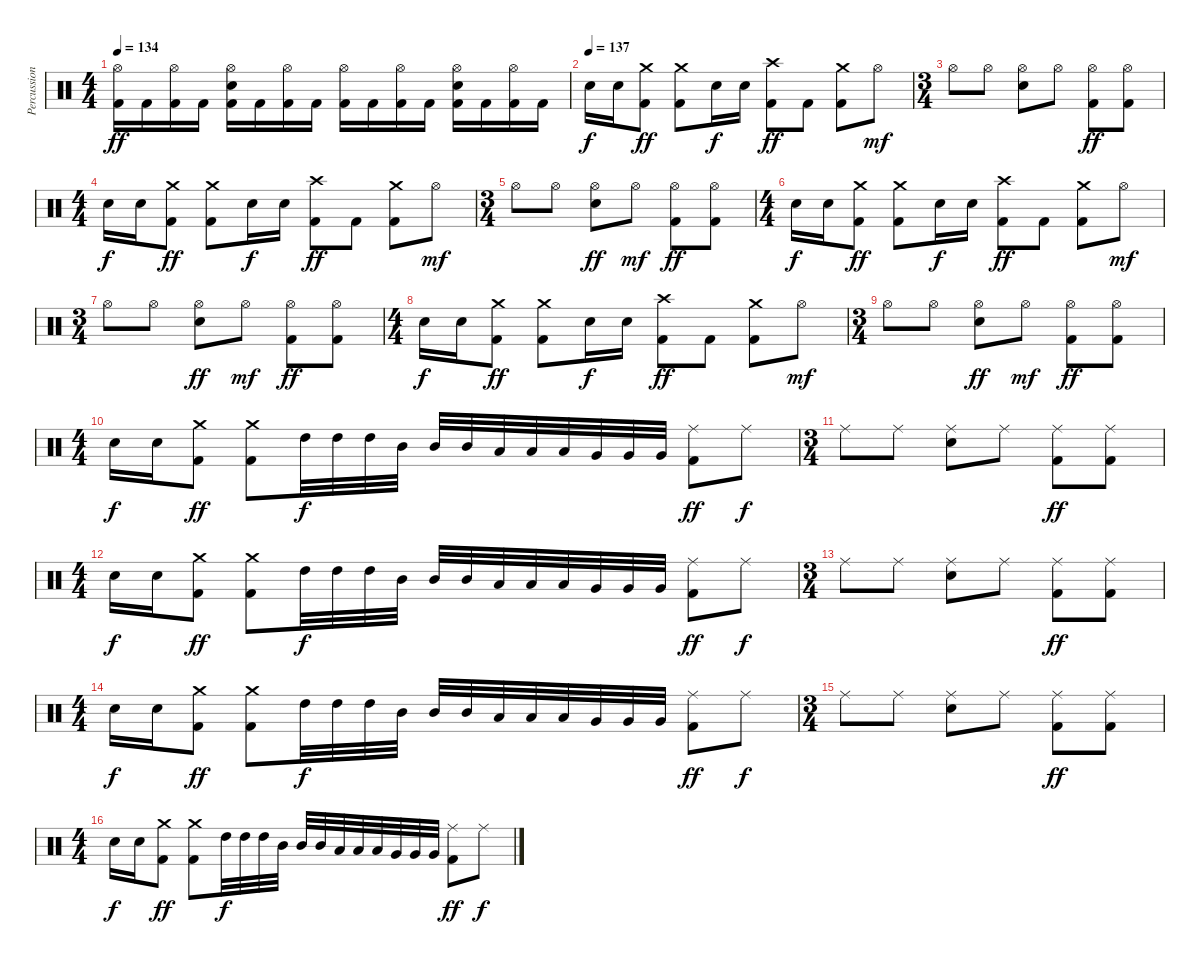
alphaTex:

\track ("Percussion" "Percussion") {instrument percussion}
\staff {score}
\articulation defaults
\ts (4 4)
\tempo 134
\clef neutral
\ks c
("Hi-Hat (open)" "Kick (hit) 2").16{dy ff} "Kick (hit) 2".16 ("Hi-Hat (open)" "Kick (hit) 2").16 "Kick (hit) 2".16 ("Hi-Hat (open)" "Electric Snare (hit)" "Kick (hit) 2").16 "Kick (hit) 2".16 ("Hi-Hat (open)" "Kick (hit) 2").16 "Kick (hit) 2".16 ("Hi-Hat (open)" "Kick (hit) 2").16 "Kick (hit) 2".16 ("Hi-Hat (open)" "Kick (hit) 2").16 "Kick (hit) 2".16 ("Hi-Hat (open)" "Electric Snare (hit)" "Kick (hit) 2").16 "Kick (hit) 2".16 ("Hi-Hat (open)" "Kick (hit) 2").16 "Kick (hit) 2".16 |
\tempo (137)
"Electric Snare (hit)".16{dy f} "Electric Snare (hit)".16 ("Crash medium (hit)" "Kick (hit) 2").8{dy ff} ("Crash medium (hit)" "Kick (hit) 2").8 "Electric Snare (hit)".16{dy f} "Electric Snare (hit)".16 ("Crash high (hit)" "Kick (hit) 2").8{dy ff} "Kick (hit) 2".8 ("Crash medium (hit)" "Kick (hit) 2").8 "Hi-Hat (open)".8{dy mf} |
\ts (3 4)
"Hi-Hat (open)".8 "Hi-Hat (open)".8 ("Hi-Hat (open)" "Electric Snare (hit)").8 "Hi-Hat (open)".8 ("Hi-Hat (open)" "Kick (hit) 2").8{dy ff} ("Hi-Hat (open)" "Kick (hit) 2").8 |
\ts (4 4)
"Electric Snare (hit)".16{dy f} "Electric Snare (hit)".16 ("Crash medium (hit)" "Kick (hit) 2").8{dy ff} ("Crash medium (hit)" "Kick (hit) 2").8 "Electric Snare (hit)".16{dy f} "Electric Snare (hit)".16 ("Crash high (hit)" "Kick (hit) 2").8{dy ff} "Kick (hit) 2".8 ("Crash medium (hit)" "Kick (hit) 2").8 "Hi-Hat (open)".8{dy mf} |
\ts (3 4)
"Hi-Hat (open)".8 "Hi-Hat (open)".8 ("Hi-Hat (open)" "Electric Snare (hit)").8{dy ff} "Hi-Hat (open)".8{dy mf} ("Hi-Hat (open)" "Kick (hit) 2").8{dy ff} ("Hi-Hat (open)" "Kick (hit) 2").8 |
\ts (4 4)
"Electric Snare (hit)".16{dy f} "Electric Snare (hit)".16 ("Crash medium (hit)" "Kick (hit) 2").8{dy ff} ("Crash medium (hit)" "Kick (hit) 2").8 "Electric Snare (hit)".16{dy f} "Electric Snare (hit)".16 ("Crash high (hit)" "Kick (hit) 2").8{dy ff} "Kick (hit) 2".8 ("Crash medium (hit)" "Kick (hit) 2").8 "Hi-Hat (open)".8{dy mf} |
\ts (3 4)
"Hi-Hat (open)".8 "Hi-Hat (open)".8 ("Hi-Hat (open)" "Electric Snare (hit)").8{dy ff} "Hi-Hat (open)".8{dy mf} ("Hi-Hat (open)" "Kick (hit) 2").8{dy ff} ("Hi-Hat (open)" "Kick (hit) 2").8 |
\ts (4 4)
"Electric Snare (hit)".16{dy f} "Electric Snare (hit)".16 ("Crash medium (hit)" "Kick (hit) 2").8{dy ff} ("Crash medium (hit)" "Kick (hit) 2").8 "Electric Snare (hit)".16{dy f} "Electric Snare (hit)".16 ("Crash high (hit)" "Kick (hit) 2").8{dy ff} "Kick (hit) 2".8 ("Crash medium (hit)" "Kick (hit) 2").8 "Hi-Hat (open)".8{dy mf} |
\ts (3 4)
"Hi-Hat (open)".8 "Hi-Hat (open)".8 ("Hi-Hat (open)" "Electric Snare (hit)").8{dy ff} "Hi-Hat (open)".8{dy mf} ("Hi-Hat (open)" "Kick (hit) 2").8{dy ff} ("Hi-Hat (open)" "Kick (hit) 2").8 |
\ts (4 4)
"Electric Snare (hit)".16{dy f} "Electric Snare (hit)".16 ("Crash medium (hit)" "Kick (hit) 2").8{dy ff} ("Crash medium (hit)" "Kick (hit) 2").8 "High Tom (hit)".32{dy f} "High Tom (hit)".32 "High Tom (hit)".32 "Mid Tom (hit)".32 "Mid Tom (hit)".32 "Mid Tom (hit)".32 "Low Tom (hit)".32 "Low Tom (hit)".32 "Low Tom (hit)".32 "Very Low Tom (hit)".32 "Very Low Tom (hit)".32 "Very Low Tom (hit)".32 ("Ride (middle)" "Kick (hit) 2").8{dy ff} "Ride (middle)".8{dy f} |
\ts (3 4)
"Ride (middle)".8 "Ride (middle)".8 ("Ride (middle)" "Electric Snare (hit)").8 "Ride (middle)".8 ("Ride (middle)" "Kick (hit) 2").8{dy ff} ("Ride (middle)" "Kick (hit) 2").8 |
\ts (4 4)
"Electric Snare (hit)".16{dy f} "Electric Snare (hit)".16 ("Crash medium (hit)" "Kick (hit) 2").8{dy ff} ("Crash medium (hit)" "Kick (hit) 2").8 "High Tom (hit)".32{dy f} "High Tom (hit)".32 "High Tom (hit)".32 "Mid Tom (hit)".32 "Mid Tom (hit)".32 "Mid Tom (hit)".32 "Low Tom (hit)".32 "Low Tom (hit)".32 "Low Tom (hit)".32 "Very Low Tom (hit)".32 "Very Low Tom (hit)".32 "Very Low Tom (hit)".32 ("Ride (middle)" "Kick (hit) 2").8{dy ff} "Ride (middle)".8{dy f} |
\ts (3 4)
"Ride (middle)".8 "Ride (middle)".8 ("Ride (middle)" "Electric Snare (hit)").8 "Ride (middle)".8 ("Ride (middle)" "Kick (hit) 2").8{dy ff} ("Ride (middle)" "Kick (hit) 2").8 |
\ts (4 4)
"Electric Snare (hit)".16{dy f} "Electric Snare (hit)".16 ("Crash medium (hit)" "Kick (hit) 2").8{dy ff} ("Crash medium (hit)" "Kick (hit) 2").8 "High Tom (hit)".32{dy f} "High Tom (hit)".32 "High Tom (hit)".32 "Mid Tom (hit)".32 "Mid Tom (hit)".32 "Mid Tom (hit)".32 "Low Tom (hit)".32 "Low Tom (hit)".32 "Low Tom (hit)".32 "Very Low Tom (hit)".32 "Very Low Tom (hit)".32 "Very Low Tom (hit)".32 ("Ride (middle)" "Kick (hit) 2").8{dy ff} "Ride (middle)".8{dy f} |
\ts (3 4)
"Ride (middle)".8 "Ride (middle)".8 ("Ride (middle)" "Electric Snare (hit)").8 "Ride (middle)".8 ("Ride (middle)" "Kick (hit) 2").8{dy ff} ("Ride (middle)" "Kick (hit) 2").8 |
\ts (4 4)
"Electric Snare (hit)".16{dy f} "Electric Snare (hit)".16 ("Crash medium (hit)" "Kick (hit) 2").8{dy ff} ("Crash medium (hit)" "Kick (hit) 2").8 "High Tom (hit)".32{dy f} "High Tom (hit)".32 "High Tom (hit)".32 "Mid Tom (hit)".32 "Mid Tom (hit)".32 "Mid Tom (hit)".32 "Low Tom (hit)".32 "Low Tom (hit)".32 "Low Tom (hit)".32 "Very Low Tom (hit)".32 "Very Low Tom (hit)".32 "Very Low Tom (hit)".32 ("Ride (middle)" "Kick (hit) 2").8{dy ff} "Ride (middle)".8{dy f}
